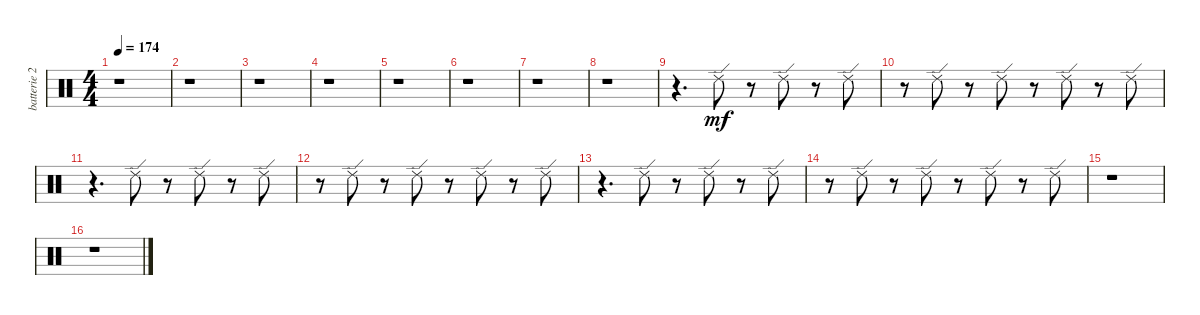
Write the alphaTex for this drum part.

\track ("batterie 2" "batterie 2") {instrument percussion}
\staff {score}
\articulation defaults
\ts (4 4)
\tempo 174
\clef neutral
\ks c
r.1{dy mf} |
r.1 |
r.1 |
r.1 |
r.1 |
r.1 |
r.1 |
r.1 |
r.4{d} "Ride (edge) 2".8 r.8 "Ride (edge) 2".8 r.8 "Ride (edge) 2".8 |
r.8 "Ride (edge) 2".8 r.8 "Ride (edge) 2".8 r.8 "Ride (edge) 2".8 r.8 "Ride (edge) 2".8 |
r.4{d} "Ride (edge) 2".8 r.8 "Ride (edge) 2".8 r.8 "Ride (edge) 2".8 |
r.8 "Ride (edge) 2".8 r.8 "Ride (edge) 2".8 r.8 "Ride (edge) 2".8 r.8 "Ride (edge) 2".8 |
r.4{d} "Ride (edge) 2".8 r.8 "Ride (edge) 2".8 r.8 "Ride (edge) 2".8 |
r.8 "Ride (edge) 2".8 r.8 "Ride (edge) 2".8 r.8 "Ride (edge) 2".8 r.8 "Ride (edge) 2".8 |
r.1 |
r.1
